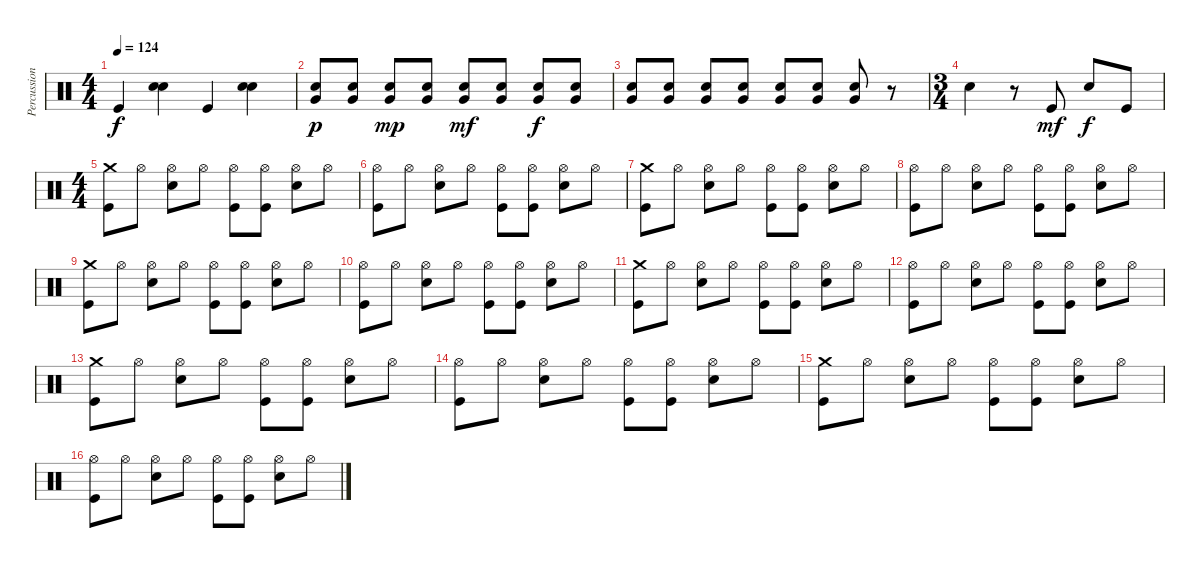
\track ("Percussion" "Percussion") {instrument percussion}
\staff {score}
\articulation defaults
\ts (4 4)
\tempo 124
\clef neutral
\ks c "Kick (hit)".4{dy f}
("Snare (hit) 2" "Hand Clap (hit)").4 "Kick (hit)".4 ("Snare (hit) 2" "Hand Clap (hit)").4 |
("Snare (hit) 2" "Very Low Tom (hit)").8{dy p} ("Snare (hit) 2" "Very Low Tom (hit)").8 ("Snare (hit) 2" "Very Low Tom (hit)").8{dy mp} ("Snare (hit) 2" "Very Low Tom (hit)").8 ("Snare (hit) 2" "Very Low Tom (hit)").8{dy mf} ("Snare (hit) 2" "Very Low Tom (hit)").8 ("Snare (hit) 2" "Very Low Tom (hit)").8{dy f} ("Snare (hit) 2" "Very Low Tom (hit)").8 |
("Snare (hit) 2" "Very Low Tom (hit)").8 ("Snare (hit) 2" "Very Low Tom (hit)").8 ("Snare (hit) 2" "Very Low Tom (hit)").8 ("Snare (hit) 2" "Very Low Tom (hit)").8 ("Snare (hit) 2" "Very Low Tom (hit)").8 ("Snare (hit) 2" "Very Low Tom (hit)").8 ("Snare (hit) 2" "Very Low Tom (hit)").8 r.8 |
\ts (3 4)
"Snare (hit) 2".4 r.8 "Kick (hit)".8{dy mf} "Snare (hit) 2".8{dy f} "Kick (hit)".8 |
\ts (4 4)
("Crash medium (hit)" "Kick (hit)").8 "Hi-Hat (open)".8 ("Hi-Hat (open)" "Snare (hit) 2").8 "Hi-Hat (open)".8 ("Hi-Hat (open)" "Kick (hit)").8 ("Hi-Hat (open)" "Kick (hit)").8 ("Hi-Hat (open)" "Snare (hit) 2").8 "Hi-Hat (open)".8 |
("Hi-Hat (open)" "Kick (hit)").8 "Hi-Hat (open)".8 ("Hi-Hat (open)" "Snare (hit) 2").8 "Hi-Hat (open)".8 ("Hi-Hat (open)" "Kick (hit)").8 ("Hi-Hat (open)" "Kick (hit)").8 ("Hi-Hat (open)" "Snare (hit) 2").8 "Hi-Hat (open)".8 |
("Crash medium (hit)" "Kick (hit)").8 "Hi-Hat (open)".8 ("Hi-Hat (open)" "Snare (hit) 2").8 "Hi-Hat (open)".8 ("Hi-Hat (open)" "Kick (hit)").8 ("Hi-Hat (open)" "Kick (hit)").8 ("Hi-Hat (open)" "Snare (hit) 2").8 "Hi-Hat (open)".8 |
("Hi-Hat (open)" "Kick (hit)").8 "Hi-Hat (open)".8 ("Hi-Hat (open)" "Snare (hit) 2").8 "Hi-Hat (open)".8 ("Hi-Hat (open)" "Kick (hit)").8 ("Hi-Hat (open)" "Kick (hit)").8 ("Hi-Hat (open)" "Snare (hit) 2").8 "Hi-Hat (open)".8 |
("Crash medium (hit)" "Kick (hit)").8 "Hi-Hat (open)".8 ("Hi-Hat (open)" "Snare (hit) 2").8 "Hi-Hat (open)".8 ("Hi-Hat (open)" "Kick (hit)").8 ("Hi-Hat (open)" "Kick (hit)").8 ("Hi-Hat (open)" "Snare (hit) 2").8 "Hi-Hat (open)".8 |
("Hi-Hat (open)" "Kick (hit)").8 "Hi-Hat (open)".8 ("Hi-Hat (open)" "Snare (hit) 2").8 "Hi-Hat (open)".8 ("Hi-Hat (open)" "Kick (hit)").8 ("Hi-Hat (open)" "Kick (hit)").8 ("Hi-Hat (open)" "Snare (hit) 2").8 "Hi-Hat (open)".8 |
("Crash medium (hit)" "Kick (hit)").8 "Hi-Hat (open)".8 ("Hi-Hat (open)" "Snare (hit) 2").8 "Hi-Hat (open)".8 ("Hi-Hat (open)" "Kick (hit)").8 ("Hi-Hat (open)" "Kick (hit)").8 ("Hi-Hat (open)" "Snare (hit) 2").8 "Hi-Hat (open)".8 |
("Hi-Hat (open)" "Kick (hit)").8 "Hi-Hat (open)".8 ("Hi-Hat (open)" "Snare (hit) 2").8 "Hi-Hat (open)".8 ("Hi-Hat (open)" "Kick (hit)").8 ("Hi-Hat (open)" "Kick (hit)").8 ("Hi-Hat (open)" "Snare (hit) 2").8 "Hi-Hat (open)".8 |
("Crash medium (hit)" "Kick (hit)").8 "Hi-Hat (open)".8 ("Hi-Hat (open)" "Snare (hit) 2").8 "Hi-Hat (open)".8 ("Hi-Hat (open)" "Kick (hit)").8 ("Hi-Hat (open)" "Kick (hit)").8 ("Hi-Hat (open)" "Snare (hit) 2").8 "Hi-Hat (open)".8 |
("Hi-Hat (open)" "Kick (hit)").8 "Hi-Hat (open)".8 ("Hi-Hat (open)" "Snare (hit) 2").8 "Hi-Hat (open)".8 ("Hi-Hat (open)" "Kick (hit)").8 ("Hi-Hat (open)" "Kick (hit)").8 ("Hi-Hat (open)" "Snare (hit) 2").8 "Hi-Hat (open)".8 |
("Crash medium (hit)" "Kick (hit)").8 "Hi-Hat (open)".8 ("Hi-Hat (open)" "Snare (hit) 2").8 "Hi-Hat (open)".8 ("Hi-Hat (open)" "Kick (hit)").8 ("Hi-Hat (open)" "Kick (hit)").8 ("Hi-Hat (open)" "Snare (hit) 2").8 "Hi-Hat (open)".8 |
("Hi-Hat (open)" "Kick (hit)").8 "Hi-Hat (open)".8 ("Hi-Hat (open)" "Snare (hit) 2").8 "Hi-Hat (open)".8 ("Hi-Hat (open)" "Kick (hit)").8 ("Hi-Hat (open)" "Kick (hit)").8 ("Hi-Hat (open)" "Snare (hit) 2").8 "Hi-Hat (open)".8
